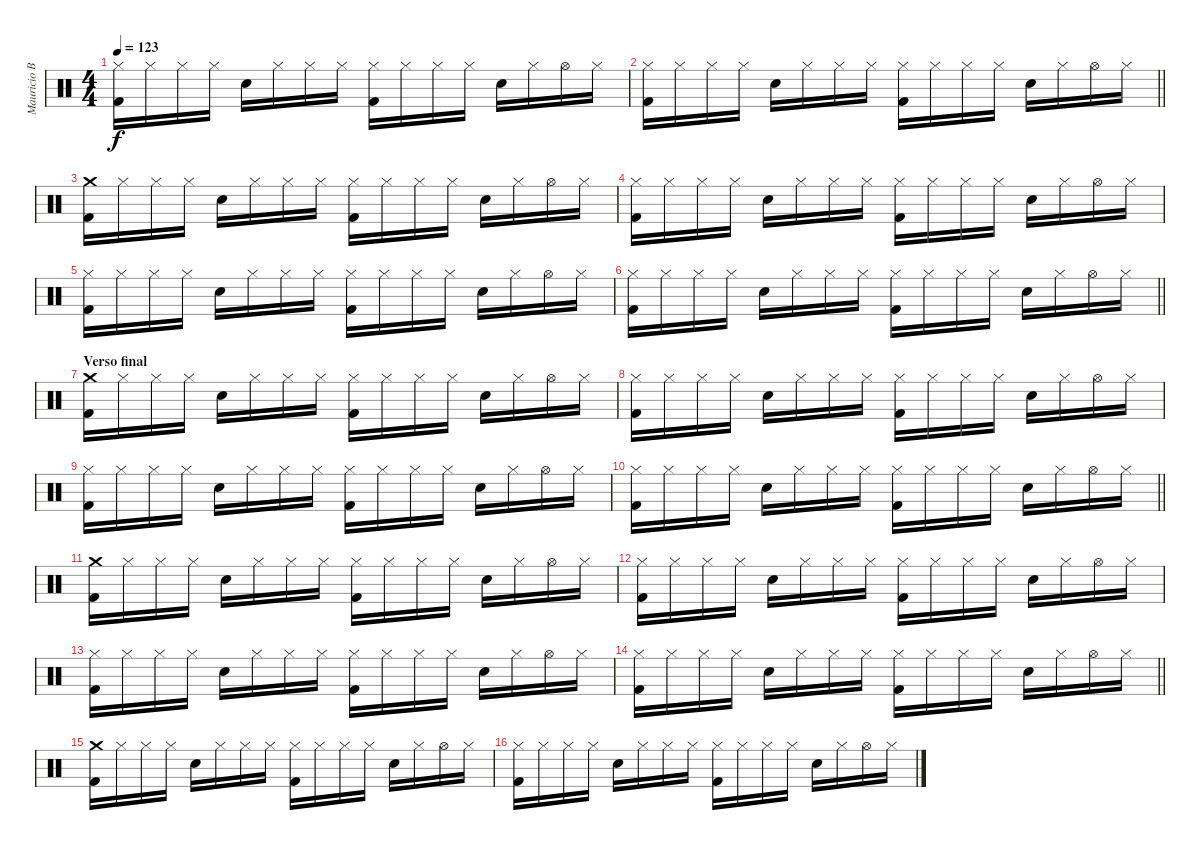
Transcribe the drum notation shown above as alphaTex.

\track ("Mauricio Basualto" "Mauricio B") {instrument percussion}
\staff {score}
\articulation defaults
\ts (4 4)
\tempo 123
\clef neutral
\ks c
("Hi-Hat (closed)" "Kick (hit) 2").16{dy f} "Hi-Hat (closed)".16 "Hi-Hat (closed)".16 "Hi-Hat (closed)".16 "Electric Snare (hit)".16 "Hi-Hat (closed)".16 "Hi-Hat (closed)".16 "Hi-Hat (closed)".16 ("Hi-Hat (closed)" "Kick (hit) 2").16 "Hi-Hat (closed)".16 "Hi-Hat (closed)".16 "Hi-Hat (closed)".16 "Electric Snare (hit)".16 "Hi-Hat (closed)".16 "Hi-Hat (open)".16 "Hi-Hat (closed)".16 |
\barLineRight lightlight
("Hi-Hat (closed)" "Kick (hit) 2").16 "Hi-Hat (closed)".16 "Hi-Hat (closed)".16 "Hi-Hat (closed)".16 "Electric Snare (hit)".16 "Hi-Hat (closed)".16 "Hi-Hat (closed)".16 "Hi-Hat (closed)".16 ("Hi-Hat (closed)" "Kick (hit) 2").16 "Hi-Hat (closed)".16 "Hi-Hat (closed)".16 "Hi-Hat (closed)".16 "Electric Snare (hit)".16 "Hi-Hat (closed)".16 "Hi-Hat (open)".16 "Hi-Hat (closed)".16 |
("Crash medium (hit)" "Kick (hit) 2").16 "Hi-Hat (closed)".16 "Hi-Hat (closed)".16 "Hi-Hat (closed)".16 "Electric Snare (hit)".16 "Hi-Hat (closed)".16 "Hi-Hat (closed)".16 "Hi-Hat (closed)".16 ("Hi-Hat (closed)" "Kick (hit) 2").16 "Hi-Hat (closed)".16 "Hi-Hat (closed)".16 "Hi-Hat (closed)".16 "Electric Snare (hit)".16 "Hi-Hat (closed)".16 "Hi-Hat (open)".16 "Hi-Hat (closed)".16 |
("Hi-Hat (closed)" "Kick (hit) 2").16 "Hi-Hat (closed)".16 "Hi-Hat (closed)".16 "Hi-Hat (closed)".16 "Electric Snare (hit)".16 "Hi-Hat (closed)".16 "Hi-Hat (closed)".16 "Hi-Hat (closed)".16 ("Hi-Hat (closed)" "Kick (hit) 2").16 "Hi-Hat (closed)".16 "Hi-Hat (closed)".16 "Hi-Hat (closed)".16 "Electric Snare (hit)".16 "Hi-Hat (closed)".16 "Hi-Hat (open)".16 "Hi-Hat (closed)".16 |
("Hi-Hat (closed)" "Kick (hit) 2").16 "Hi-Hat (closed)".16 "Hi-Hat (closed)".16 "Hi-Hat (closed)".16 "Electric Snare (hit)".16 "Hi-Hat (closed)".16 "Hi-Hat (closed)".16 "Hi-Hat (closed)".16 ("Hi-Hat (closed)" "Kick (hit) 2").16 "Hi-Hat (closed)".16 "Hi-Hat (closed)".16 "Hi-Hat (closed)".16 "Electric Snare (hit)".16 "Hi-Hat (closed)".16 "Hi-Hat (open)".16 "Hi-Hat (closed)".16 |
\barLineRight lightlight
("Hi-Hat (closed)" "Kick (hit) 2").16 "Hi-Hat (closed)".16 "Hi-Hat (closed)".16 "Hi-Hat (closed)".16 "Electric Snare (hit)".16 "Hi-Hat (closed)".16 "Hi-Hat (closed)".16 "Hi-Hat (closed)".16 ("Hi-Hat (closed)" "Kick (hit) 2").16 "Hi-Hat (closed)".16 "Hi-Hat (closed)".16 "Hi-Hat (closed)".16 "Electric Snare (hit)".16 "Hi-Hat (closed)".16 "Hi-Hat (open)".16 "Hi-Hat (closed)".16 |
\section ("" "Verso final")
("Crash medium (hit)" "Kick (hit) 2").16 "Hi-Hat (closed)".16 "Hi-Hat (closed)".16 "Hi-Hat (closed)".16 "Electric Snare (hit)".16 "Hi-Hat (closed)".16 "Hi-Hat (closed)".16 "Hi-Hat (closed)".16 ("Hi-Hat (closed)" "Kick (hit) 2").16 "Hi-Hat (closed)".16 "Hi-Hat (closed)".16 "Hi-Hat (closed)".16 "Electric Snare (hit)".16 "Hi-Hat (closed)".16 "Hi-Hat (open)".16 "Hi-Hat (closed)".16 |
("Hi-Hat (closed)" "Kick (hit) 2").16 "Hi-Hat (closed)".16 "Hi-Hat (closed)".16 "Hi-Hat (closed)".16 "Electric Snare (hit)".16 "Hi-Hat (closed)".16 "Hi-Hat (closed)".16 "Hi-Hat (closed)".16 ("Hi-Hat (closed)" "Kick (hit) 2").16 "Hi-Hat (closed)".16 "Hi-Hat (closed)".16 "Hi-Hat (closed)".16 "Electric Snare (hit)".16 "Hi-Hat (closed)".16 "Hi-Hat (open)".16 "Hi-Hat (closed)".16 |
("Hi-Hat (closed)" "Kick (hit) 2").16 "Hi-Hat (closed)".16 "Hi-Hat (closed)".16 "Hi-Hat (closed)".16 "Electric Snare (hit)".16 "Hi-Hat (closed)".16 "Hi-Hat (closed)".16 "Hi-Hat (closed)".16 ("Hi-Hat (closed)" "Kick (hit) 2").16 "Hi-Hat (closed)".16 "Hi-Hat (closed)".16 "Hi-Hat (closed)".16 "Electric Snare (hit)".16 "Hi-Hat (closed)".16 "Hi-Hat (open)".16 "Hi-Hat (closed)".16 |
\barLineRight lightlight
("Hi-Hat (closed)" "Kick (hit) 2").16 "Hi-Hat (closed)".16 "Hi-Hat (closed)".16 "Hi-Hat (closed)".16 "Electric Snare (hit)".16 "Hi-Hat (closed)".16 "Hi-Hat (closed)".16 "Hi-Hat (closed)".16 ("Hi-Hat (closed)" "Kick (hit) 2").16 "Hi-Hat (closed)".16 "Hi-Hat (closed)".16 "Hi-Hat (closed)".16 "Electric Snare (hit)".16 "Hi-Hat (closed)".16 "Hi-Hat (open)".16 "Hi-Hat (closed)".16 |
("Crash medium (hit)" "Kick (hit) 2").16 "Hi-Hat (closed)".16 "Hi-Hat (closed)".16 "Hi-Hat (closed)".16 "Electric Snare (hit)".16 "Hi-Hat (closed)".16 "Hi-Hat (closed)".16 "Hi-Hat (closed)".16 ("Hi-Hat (closed)" "Kick (hit) 2").16 "Hi-Hat (closed)".16 "Hi-Hat (closed)".16 "Hi-Hat (closed)".16 "Electric Snare (hit)".16 "Hi-Hat (closed)".16 "Hi-Hat (open)".16 "Hi-Hat (closed)".16 |
("Hi-Hat (closed)" "Kick (hit) 2").16 "Hi-Hat (closed)".16 "Hi-Hat (closed)".16 "Hi-Hat (closed)".16 "Electric Snare (hit)".16 "Hi-Hat (closed)".16 "Hi-Hat (closed)".16 "Hi-Hat (closed)".16 ("Hi-Hat (closed)" "Kick (hit) 2").16 "Hi-Hat (closed)".16 "Hi-Hat (closed)".16 "Hi-Hat (closed)".16 "Electric Snare (hit)".16 "Hi-Hat (closed)".16 "Hi-Hat (open)".16 "Hi-Hat (closed)".16 |
("Hi-Hat (closed)" "Kick (hit) 2").16 "Hi-Hat (closed)".16 "Hi-Hat (closed)".16 "Hi-Hat (closed)".16 "Electric Snare (hit)".16 "Hi-Hat (closed)".16 "Hi-Hat (closed)".16 "Hi-Hat (closed)".16 ("Hi-Hat (closed)" "Kick (hit) 2").16 "Hi-Hat (closed)".16 "Hi-Hat (closed)".16 "Hi-Hat (closed)".16 "Electric Snare (hit)".16 "Hi-Hat (closed)".16 "Hi-Hat (open)".16 "Hi-Hat (closed)".16 |
\barLineRight lightlight
("Hi-Hat (closed)" "Kick (hit) 2").16 "Hi-Hat (closed)".16 "Hi-Hat (closed)".16 "Hi-Hat (closed)".16 "Electric Snare (hit)".16 "Hi-Hat (closed)".16 "Hi-Hat (closed)".16 "Hi-Hat (closed)".16 ("Hi-Hat (closed)" "Kick (hit) 2").16 "Hi-Hat (closed)".16 "Hi-Hat (closed)".16 "Hi-Hat (closed)".16 "Electric Snare (hit)".16 "Hi-Hat (closed)".16 "Hi-Hat (open)".16 "Hi-Hat (closed)".16 |
("Crash medium (hit)" "Kick (hit) 2").16 "Hi-Hat (closed)".16 "Hi-Hat (closed)".16 "Hi-Hat (closed)".16 "Electric Snare (hit)".16 "Hi-Hat (closed)".16 "Hi-Hat (closed)".16 "Hi-Hat (closed)".16 ("Hi-Hat (closed)" "Kick (hit) 2").16 "Hi-Hat (closed)".16 "Hi-Hat (closed)".16 "Hi-Hat (closed)".16 "Electric Snare (hit)".16 "Hi-Hat (closed)".16 "Hi-Hat (open)".16 "Hi-Hat (closed)".16 |
("Hi-Hat (closed)" "Kick (hit) 2").16 "Hi-Hat (closed)".16 "Hi-Hat (closed)".16 "Hi-Hat (closed)".16 "Electric Snare (hit)".16 "Hi-Hat (closed)".16 "Hi-Hat (closed)".16 "Hi-Hat (closed)".16 ("Hi-Hat (closed)" "Kick (hit) 2").16 "Hi-Hat (closed)".16 "Hi-Hat (closed)".16 "Hi-Hat (closed)".16 "Electric Snare (hit)".16 "Hi-Hat (closed)".16 "Hi-Hat (open)".16 "Hi-Hat (closed)".16
